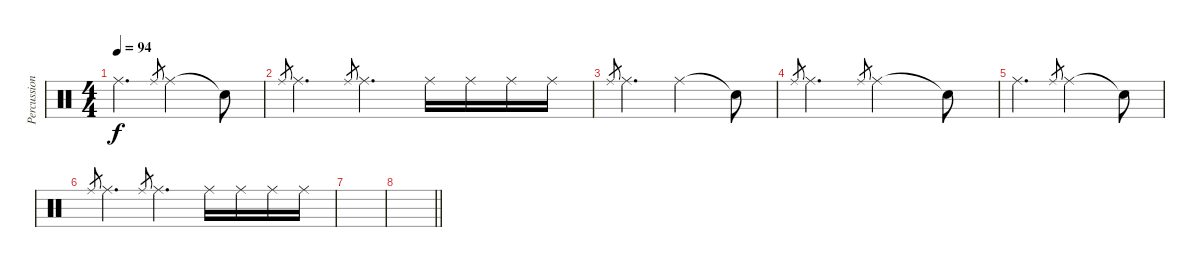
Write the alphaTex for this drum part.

\track ("Percussion" "Percussion") {instrument percussion}
\staff {score}
\articulation defaults
\ts (4 4)
\tempo 94
\clef neutral
\ks c "Ride (middle)".4{d dy f} "Ride (middle)".8{gr} "Ride (middle)".2 "Snare (hit)"{t}.8
|
"Ride (middle)".8{gr} "Ride (middle)".4{d} "Ride (middle)".8{gr} "Ride (middle)".4{d} "Ride (middle)".16 "Ride (middle)".16 "Ride (middle)".16 "Ride (middle)".16 |
"Ride (middle)".8{gr} "Ride (middle)".4{d} "Ride (middle)".2 "Snare (hit)"{t}.8 |
"Ride (middle)".8{gr} "Ride (middle)".4{d} "Ride (middle)".8{gr} "Ride (middle)".2 "Snare (hit)"{t}.8 |
"Ride (middle)".4{d} "Ride (middle)".8{gr} "Ride (middle)".2 "Snare (hit)"{t}.8 |
"Ride (middle)".8{gr} "Ride (middle)".4{d} "Ride (middle)".8{gr} "Ride (middle)".4{d} "Ride (middle)".16 "Ride (middle)".16 "Ride (middle)".16 "Ride (middle)".16 |
|
\barLineRight lightlight
